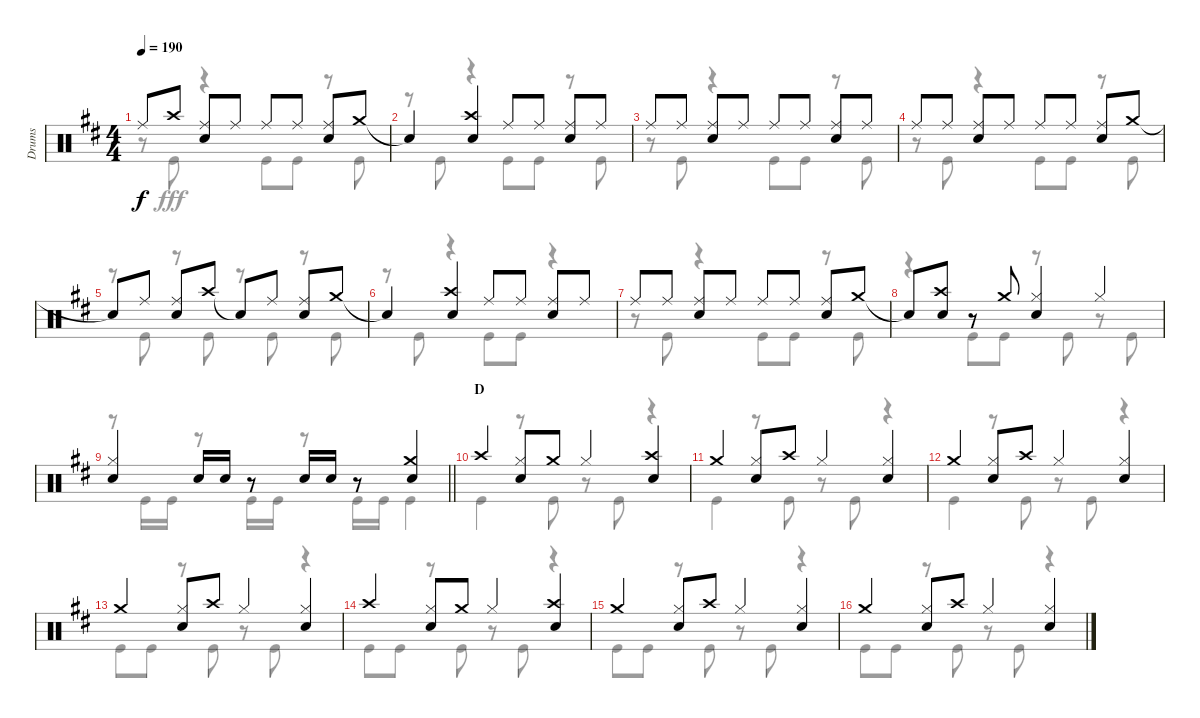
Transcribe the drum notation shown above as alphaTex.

\track ("Drums" "Drums") {instrument percussion}
\staff {score}
\articulation defaults
\voice
\ts (4 4)
\tempo 190
\clef neutral
\ks d "Ride (middle)"{t}.8{dy f} "Crash high (hit)".8
("Ride (middle)" "Snare (hit) 2").8 "Ride (middle)".8 "Ride (middle)".8 "Ride (middle)".8 ("Ride (middle)" "Snare (hit) 2").8 "Crash medium (hit)".8 |
"Snare (hit)"{t}.4 ("Crash high (hit)" "Snare (hit) 2").4 "Ride (middle)".8 "Ride (middle)".8 ("Ride (middle)" "Snare (hit) 2").8 "Ride (middle)".8 |
"Ride (middle)".8 "Ride (middle)".8 ("Ride (middle)" "Snare (hit) 2").8 "Ride (middle)".8 "Ride (middle)".8 "Ride (middle)".8 ("Ride (middle)" "Snare (hit) 2").8 "Ride (middle)".8 |
"Ride (middle)".8 "Ride (middle)".8 ("Ride (middle)" "Snare (hit) 2").8 "Ride (middle)".8 "Ride (middle)".8 "Ride (middle)".8 ("Ride (middle)" "Snare (hit) 2").8 "Crash medium (hit)".8 |
"Snare (hit)"{t}.8 "Ride (middle)".8 ("Ride (middle)" "Snare (hit) 2").8 "Crash high (hit)".8 "Snare (hit)"{t}.8 "Ride (middle)".8 ("Ride (middle)" "Snare (hit) 2").8 "Crash medium (hit)".8 |
"Snare (hit)"{t}.4 ("Crash high (hit)" "Snare (hit) 2").4 "Ride (middle)".8 "Ride (middle)".8 ("Ride (middle)" "Snare (hit) 2").8 "Ride (middle)".8 |
"Ride (middle)".8 "Ride (middle)".8 ("Ride (middle)" "Snare (hit) 2").8 "Ride (middle)".8 "Ride (middle)".8 "Ride (middle)".8 ("Ride (middle)" "Snare (hit) 2").8 "Crash medium (hit)".8 |
"Snare (hit)"{t}.8 ("Crash high (hit)" "Snare (hit) 2").8 r.8 "Crash medium (hit)".8 ("Hi-Hat (closed)" "Snare (hit) 2").4 "Hi-Hat (closed)".4 |
\barLineRight lightlight
("Hi-Hat (closed)" "Snare (hit) 2").4 "Snare (hit) 2".16 "Snare (hit) 2".16 r.8 "Snare (hit) 2".16 "Snare (hit) 2".16 r.8 ("Crash medium (hit)" "Snare (hit) 2").4 |
\section ("" "D")
"Crash high (hit)".4 ("Hi-Hat (closed)" "Snare (hit) 2").8 "Crash medium (hit)".8 "Hi-Hat (closed)".4 ("Crash high (hit)" "Snare (hit) 2").4 |
"Crash medium (hit)".4 ("Hi-Hat (closed)" "Snare (hit) 2").8 "Crash high (hit)".8 "Hi-Hat (closed)".4 ("Hi-Hat (closed)" "Snare (hit) 2").4 |
"Crash medium (hit)".4 ("Hi-Hat (closed)" "Snare (hit) 2").8 "Crash high (hit)".8 "Hi-Hat (closed)".4 ("Hi-Hat (closed)" "Snare (hit) 2").4 |
"Crash medium (hit)".4 ("Hi-Hat (closed)" "Snare (hit) 2").8 "Crash high (hit)".8 "Hi-Hat (closed)".4 ("Hi-Hat (closed)" "Snare (hit) 2").4 |
"Crash high (hit)".4 ("Hi-Hat (closed)" "Snare (hit) 2").8 "Crash medium (hit)".8 "Hi-Hat (closed)".4 ("Crash high (hit)" "Snare (hit) 2").4 |
"Crash medium (hit)".4 ("Hi-Hat (closed)" "Snare (hit) 2").8 "Crash high (hit)".8 "Hi-Hat (closed)".4 ("Hi-Hat (closed)" "Snare (hit) 2").4 |
"Crash medium (hit)".4 ("Hi-Hat (closed)" "Snare (hit) 2").8 "Crash high (hit)".8 "Hi-Hat (closed)".4 ("Hi-Hat (closed)" "Snare (hit) 2").4
\voice
\clef neutral
\ottava regular
\simile none
\ks d
r.8{dy fff} "Kick (hit)".8 r.4 "Kick (hit)".8 "Kick (hit)".8 r.8 "Kick (hit)".8 |
r.8 "Kick (hit)".8 r.4 "Kick (hit)".8 "Kick (hit)".8 r.8 "Kick (hit)".8 |
r.8 "Kick (hit)".8 r.4 "Kick (hit)".8 "Kick (hit)".8 r.8 "Kick (hit)".8 |
r.8 "Kick (hit)".8 r.4 "Kick (hit)".8 "Kick (hit)".8 r.8 "Kick (hit)".8 |
r.8 "Kick (hit)".8 r.8 "Kick (hit)".8 r.8 "Kick (hit)".8 r.8 "Kick (hit)".8 |
r.8 "Kick (hit)".8 r.4 "Kick (hit)".8 "Kick (hit)".8 r.4 |
r.8 "Kick (hit)".8 r.4 "Kick (hit)".8 "Kick (hit)".8 r.8 "Kick (hit)".8 |
r.4 "Kick (hit)".8 "Kick (hit)".8 r.8 "Kick (hit)".8 r.8 "Kick (hit)".8 |
\barLineRight lightlight
r.8 "Kick (hit)".16 "Kick (hit)".16 r.8 "Kick (hit)".16 "Kick (hit)".16 r.8 "Kick (hit)".16 "Kick (hit)".16 "Kick (hit)".4 |
"Kick (hit)".4 r.8 "Kick (hit)".8 r.8 "Kick (hit)".8 r.4 |
"Kick (hit)".4 r.8 "Kick (hit)".8 r.8 "Kick (hit)".8 r.4 |
"Kick (hit)".4 r.8 "Kick (hit)".8 r.8 "Kick (hit)".8 r.4 |
"Kick (hit)".8 "Kick (hit)".8 r.8 "Kick (hit)".8 r.8 "Kick (hit)".8 r.4 |
"Kick (hit)".8 "Kick (hit)".8 r.8 "Kick (hit)".8 r.8 "Kick (hit)".8 r.4 |
"Kick (hit)".8 "Kick (hit)".8 r.8 "Kick (hit)".8 r.8 "Kick (hit)".8 r.4 |
"Kick (hit)".8 "Kick (hit)".8 r.8 "Kick (hit)".8 r.8 "Kick (hit)".8 r.4
